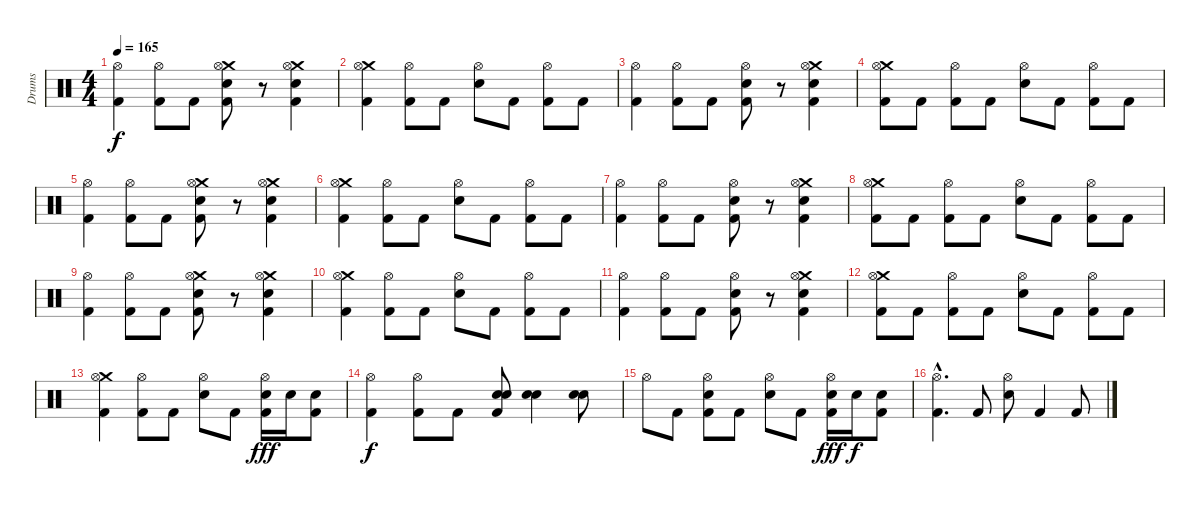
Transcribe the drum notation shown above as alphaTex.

\track ("Drums" "Drums") {instrument percussion}
\staff {score}
\articulation defaults
\ts (4 4)
\tempo 165
\clef neutral
\ks c
("Hi-Hat (open)" "Kick (hit) 2").4{dy f} ("Hi-Hat (open)" "Kick (hit) 2").8 "Kick (hit) 2".8 ("Crash medium (hit)" "Hi-Hat (open)" "Electric Snare (hit)" "Kick (hit) 2").8 r.8 ("Crash medium (hit)" "Hi-Hat (open)" "Electric Snare (hit)" "Kick (hit) 2").4 |
("Crash medium (hit)" "Hi-Hat (open)" "Kick (hit) 2").4 ("Hi-Hat (open)" "Kick (hit) 2").8 "Kick (hit) 2".8 ("Hi-Hat (open)" "Electric Snare (hit)").8 "Kick (hit) 2".8 ("Hi-Hat (open)" "Kick (hit) 2").8 "Kick (hit) 2".8 |
("Hi-Hat (open)" "Kick (hit) 2").4 ("Hi-Hat (open)" "Kick (hit) 2").8 "Kick (hit) 2".8 ("Hi-Hat (open)" "Electric Snare (hit)" "Kick (hit) 2").8 r.8 ("Crash medium (hit)" "Hi-Hat (open)" "Electric Snare (hit)" "Kick (hit) 2").4 |
("Crash medium (hit)" "Hi-Hat (open)" "Kick (hit) 2").8 "Kick (hit) 2".8 ("Hi-Hat (open)" "Kick (hit) 2").8 "Kick (hit) 2".8 ("Hi-Hat (open)" "Electric Snare (hit)").8 "Kick (hit) 2".8 ("Hi-Hat (open)" "Kick (hit) 2").8 "Kick (hit) 2".8 |
("Hi-Hat (open)" "Kick (hit) 2").4 ("Hi-Hat (open)" "Kick (hit) 2").8 "Kick (hit) 2".8 ("Crash medium (hit)" "Hi-Hat (open)" "Electric Snare (hit)" "Kick (hit) 2").8 r.8 ("Crash medium (hit)" "Hi-Hat (open)" "Electric Snare (hit)" "Kick (hit) 2").4 |
("Crash medium (hit)" "Hi-Hat (open)" "Kick (hit) 2").4 ("Hi-Hat (open)" "Kick (hit) 2").8 "Kick (hit) 2".8 ("Hi-Hat (open)" "Electric Snare (hit)").8 "Kick (hit) 2".8 ("Hi-Hat (open)" "Kick (hit) 2").8 "Kick (hit) 2".8 |
("Hi-Hat (open)" "Kick (hit) 2").4 ("Hi-Hat (open)" "Kick (hit) 2").8 "Kick (hit) 2".8 ("Hi-Hat (open)" "Electric Snare (hit)" "Kick (hit) 2").8 r.8 ("Crash medium (hit)" "Hi-Hat (open)" "Electric Snare (hit)" "Kick (hit) 2").4 |
("Crash medium (hit)" "Hi-Hat (open)" "Kick (hit) 2").8 "Kick (hit) 2".8 ("Hi-Hat (open)" "Kick (hit) 2").8 "Kick (hit) 2".8 ("Hi-Hat (open)" "Electric Snare (hit)").8 "Kick (hit) 2".8 ("Hi-Hat (open)" "Kick (hit) 2").8 "Kick (hit) 2".8 |
("Hi-Hat (open)" "Kick (hit) 2").4 ("Hi-Hat (open)" "Kick (hit) 2").8 "Kick (hit) 2".8 ("Crash medium (hit)" "Hi-Hat (open)" "Electric Snare (hit)" "Kick (hit) 2").8 r.8 ("Crash medium (hit)" "Hi-Hat (open)" "Electric Snare (hit)" "Kick (hit) 2").4 |
("Crash medium (hit)" "Hi-Hat (open)" "Kick (hit) 2").4 ("Hi-Hat (open)" "Kick (hit) 2").8 "Kick (hit) 2".8 ("Hi-Hat (open)" "Electric Snare (hit)").8 "Kick (hit) 2".8 ("Hi-Hat (open)" "Kick (hit) 2").8 "Kick (hit) 2".8 |
("Hi-Hat (open)" "Kick (hit) 2").4 ("Hi-Hat (open)" "Kick (hit) 2").8 "Kick (hit) 2".8 ("Hi-Hat (open)" "Electric Snare (hit)" "Kick (hit) 2").8 r.8 ("Crash medium (hit)" "Hi-Hat (open)" "Electric Snare (hit)" "Kick (hit) 2").4 |
("Crash medium (hit)" "Hi-Hat (open)" "Kick (hit) 2").8 "Kick (hit) 2".8 ("Hi-Hat (open)" "Kick (hit) 2").8 "Kick (hit) 2".8 ("Hi-Hat (open)" "Electric Snare (hit)").8 "Kick (hit) 2".8 ("Hi-Hat (open)" "Kick (hit) 2").8 "Kick (hit) 2".8 |
("Crash medium (hit)" "Hi-Hat (open)" "Kick (hit) 2").4 ("Hi-Hat (open)" "Kick (hit) 2").8 "Kick (hit) 2".8 ("Hi-Hat (open)" "Electric Snare (hit)").8 "Kick (hit) 2".8 ("Hi-Hat (open)" "Electric Snare (hit)" "Kick (hit) 2").16{dy fff} "Electric Snare (hit)".16 ("Electric Snare (hit)" "Kick (hit) 2").8 |
("Hi-Hat (open)" "Kick (hit) 2").4{dy f} ("Hi-Hat (open)" "Kick (hit) 2").8 "Kick (hit) 2".8 ("Snare (hit) 2" "Electric Snare (hit)" "Kick (hit) 2").8 ("Snare (hit) 2" "Electric Snare (hit)").4 ("Snare (hit) 2" "Electric Snare (hit)").8 |
"Hi-Hat (open)".8 "Kick (hit) 2".8 ("Hi-Hat (open)" "Electric Snare (hit)" "Kick (hit) 2").8 "Kick (hit) 2".8 ("Hi-Hat (open)" "Electric Snare (hit)").8 "Kick (hit) 2".8 ("Hi-Hat (open)" "Electric Snare (hit)" "Kick (hit) 2").16{dy fff} "Electric Snare (hit)".16{dy f} ("Electric Snare (hit)" "Kick (hit) 2").8 |
("Hi-Hat (open)"{hac} "Kick (hit) 2"{hac}).4{d} "Kick (hit) 2".8 ("Electric Snare (hit)" "Hi-Hat (open)").8 "Kick (hit) 2".4 "Kick (hit) 2".8
